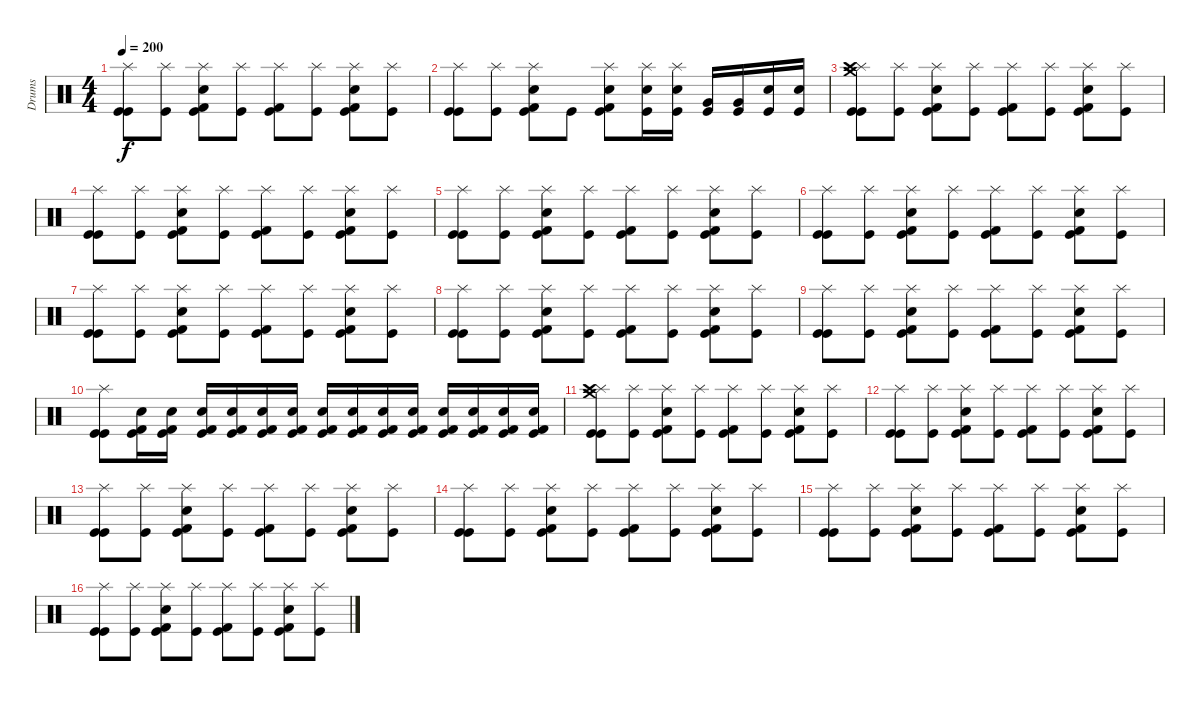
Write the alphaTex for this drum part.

\track ("Drums" "Drums") {instrument percussion}
\staff {score}
\articulation defaults
\ts (4 4)
\tempo 200
\clef neutral
\ks c
("Splash (hit)" "Kick (hit)" "Kick (hit)").8{dy f} ("Splash (hit)" "Kick (hit)").8 ("Splash (hit)" "Snare (hit) 2" "Kick (hit) 2" "Kick (hit)").8 ("Splash (hit)" "Kick (hit)").8 ("Splash (hit)" "Kick (hit) 2" "Kick (hit)").8 ("Splash (hit)" "Kick (hit)").8 ("Splash (hit)" "Snare (hit) 2" "Kick (hit) 2" "Kick (hit)").8 ("Splash (hit)" "Kick (hit)").8 |
("Splash (hit)" "Kick (hit)" "Kick (hit)").8 ("Splash (hit)" "Kick (hit)").8 ("Splash (hit)" "Snare (hit) 2" "Kick (hit) 2" "Kick (hit)").8 "Kick (hit)".8 ("Splash (hit)" "Snare (hit) 2" "Kick (hit) 2" "Kick (hit)").8 ("Splash (hit)" "Snare (hit) 2" "Kick (hit)").16 ("Splash (hit)" "Snare (hit) 2" "Kick (hit)").16 ("Very Low Tom (hit)" "Kick (hit)").16 ("Very Low Tom (hit)" "Kick (hit)").16 ("Electric Snare (hit)" "Kick (hit)").16 ("Electric Snare (hit)" "Kick (hit)").16 |
("Splash (hit)" "Crash high (hit)" "Crash medium (hit)" "Kick (hit)" "Kick (hit)").8 ("Splash (hit)" "Kick (hit)").8 ("Splash (hit)" "Snare (hit) 2" "Kick (hit) 2" "Kick (hit)").8 ("Splash (hit)" "Kick (hit)").8 ("Splash (hit)" "Kick (hit) 2" "Kick (hit)").8 ("Splash (hit)" "Kick (hit)").8 ("Splash (hit)" "Snare (hit) 2" "Kick (hit) 2" "Kick (hit)").8 ("Splash (hit)" "Kick (hit)").8 |
("Splash (hit)" "Kick (hit)" "Kick (hit)").8 ("Splash (hit)" "Kick (hit)").8 ("Splash (hit)" "Snare (hit) 2" "Kick (hit) 2" "Kick (hit)").8 ("Splash (hit)" "Kick (hit)").8 ("Splash (hit)" "Kick (hit) 2" "Kick (hit)").8 ("Splash (hit)" "Kick (hit)").8 ("Splash (hit)" "Snare (hit) 2" "Kick (hit) 2" "Kick (hit)").8 ("Splash (hit)" "Kick (hit)").8 |
("Splash (hit)" "Kick (hit)" "Kick (hit)").8 ("Splash (hit)" "Kick (hit)").8 ("Splash (hit)" "Snare (hit) 2" "Kick (hit) 2" "Kick (hit)").8 ("Splash (hit)" "Kick (hit)").8 ("Splash (hit)" "Kick (hit) 2" "Kick (hit)").8 ("Splash (hit)" "Kick (hit)").8 ("Splash (hit)" "Snare (hit) 2" "Kick (hit) 2" "Kick (hit)").8 ("Splash (hit)" "Kick (hit)").8 |
("Splash (hit)" "Kick (hit)" "Kick (hit)").8 ("Splash (hit)" "Kick (hit)").8 ("Splash (hit)" "Snare (hit) 2" "Kick (hit) 2" "Kick (hit)").8 ("Splash (hit)" "Kick (hit)").8 ("Splash (hit)" "Kick (hit) 2" "Kick (hit)").8 ("Splash (hit)" "Kick (hit)").8 ("Splash (hit)" "Snare (hit) 2" "Kick (hit) 2" "Kick (hit)").8 ("Splash (hit)" "Kick (hit)").8 |
("Splash (hit)" "Kick (hit)" "Kick (hit)").8 ("Splash (hit)" "Kick (hit)").8 ("Splash (hit)" "Snare (hit) 2" "Kick (hit) 2" "Kick (hit)").8 ("Splash (hit)" "Kick (hit)").8 ("Splash (hit)" "Kick (hit) 2" "Kick (hit)").8 ("Splash (hit)" "Kick (hit)").8 ("Splash (hit)" "Snare (hit) 2" "Kick (hit) 2" "Kick (hit)").8 ("Splash (hit)" "Kick (hit)").8 |
("Splash (hit)" "Kick (hit)" "Kick (hit)").8 ("Splash (hit)" "Kick (hit)").8 ("Splash (hit)" "Snare (hit) 2" "Kick (hit) 2" "Kick (hit)").8 ("Splash (hit)" "Kick (hit)").8 ("Splash (hit)" "Kick (hit) 2" "Kick (hit)").8 ("Splash (hit)" "Kick (hit)").8 ("Splash (hit)" "Snare (hit) 2" "Kick (hit) 2" "Kick (hit)").8 ("Splash (hit)" "Kick (hit)").8 |
("Splash (hit)" "Kick (hit)" "Kick (hit)").8 ("Splash (hit)" "Kick (hit)").8 ("Splash (hit)" "Snare (hit) 2" "Kick (hit) 2" "Kick (hit)").8 ("Splash (hit)" "Kick (hit)").8 ("Splash (hit)" "Kick (hit) 2" "Kick (hit)").8 ("Splash (hit)" "Kick (hit)").8 ("Splash (hit)" "Snare (hit) 2" "Kick (hit) 2" "Kick (hit)").8 ("Splash (hit)" "Kick (hit)").8 |
("Splash (hit)" "Kick (hit)" "Kick (hit)").8 ("Snare (hit) 2" "Kick (hit) 2" "Kick (hit)").16 ("Snare (hit) 2" "Kick (hit) 2" "Kick (hit)").16 ("Snare (hit) 2" "Kick (hit) 2" "Kick (hit)").16 ("Snare (hit) 2" "Kick (hit) 2" "Kick (hit)").16 ("Snare (hit) 2" "Kick (hit) 2" "Kick (hit)").16 ("Snare (hit) 2" "Kick (hit) 2" "Kick (hit)").16 ("Snare (hit) 2" "Kick (hit) 2" "Kick (hit)").16 ("Snare (hit) 2" "Kick (hit) 2" "Kick (hit)").16 ("Snare (hit) 2" "Kick (hit) 2" "Kick (hit)").16 ("Snare (hit) 2" "Kick (hit) 2" "Kick (hit)").16 ("Snare (hit) 2" "Kick (hit) 2" "Kick (hit)").16 ("Snare (hit) 2" "Kick (hit) 2" "Kick (hit)").16 ("Snare (hit) 2" "Kick (hit) 2" "Kick (hit)").16 ("Snare (hit) 2" "Kick (hit) 2" "Kick (hit)").16 |
("Splash (hit)" "Crash high (hit)" "Crash medium (hit)" "Kick (hit)" "Kick (hit)").8 ("Splash (hit)" "Kick (hit)").8 ("Splash (hit)" "Snare (hit) 2" "Kick (hit) 2" "Kick (hit)").8 ("Splash (hit)" "Kick (hit)").8 ("Splash (hit)" "Kick (hit) 2" "Kick (hit)").8 ("Splash (hit)" "Kick (hit)").8 ("Splash (hit)" "Snare (hit) 2" "Kick (hit) 2" "Kick (hit)").8 ("Splash (hit)" "Kick (hit)").8 |
("Splash (hit)" "Kick (hit)" "Kick (hit)").8 ("Splash (hit)" "Kick (hit)").8 ("Splash (hit)" "Snare (hit) 2" "Kick (hit) 2" "Kick (hit)").8 ("Splash (hit)" "Kick (hit)").8 ("Splash (hit)" "Kick (hit) 2" "Kick (hit)").8 ("Splash (hit)" "Kick (hit)").8 ("Splash (hit)" "Snare (hit) 2" "Kick (hit) 2" "Kick (hit)").8 ("Splash (hit)" "Kick (hit)").8 |
("Splash (hit)" "Kick (hit)" "Kick (hit)").8 ("Splash (hit)" "Kick (hit)").8 ("Splash (hit)" "Snare (hit) 2" "Kick (hit) 2" "Kick (hit)").8 ("Splash (hit)" "Kick (hit)").8 ("Splash (hit)" "Kick (hit) 2" "Kick (hit)").8 ("Splash (hit)" "Kick (hit)").8 ("Splash (hit)" "Snare (hit) 2" "Kick (hit) 2" "Kick (hit)").8 ("Splash (hit)" "Kick (hit)").8 |
("Splash (hit)" "Kick (hit)" "Kick (hit)").8 ("Splash (hit)" "Kick (hit)").8 ("Splash (hit)" "Snare (hit) 2" "Kick (hit) 2" "Kick (hit)").8 ("Splash (hit)" "Kick (hit)").8 ("Splash (hit)" "Kick (hit) 2" "Kick (hit)").8 ("Splash (hit)" "Kick (hit)").8 ("Splash (hit)" "Snare (hit) 2" "Kick (hit) 2" "Kick (hit)").8 ("Splash (hit)" "Kick (hit)").8 |
("Splash (hit)" "Kick (hit)" "Kick (hit)").8 ("Splash (hit)" "Kick (hit)").8 ("Splash (hit)" "Snare (hit) 2" "Kick (hit) 2" "Kick (hit)").8 ("Splash (hit)" "Kick (hit)").8 ("Splash (hit)" "Kick (hit) 2" "Kick (hit)").8 ("Splash (hit)" "Kick (hit)").8 ("Splash (hit)" "Snare (hit) 2" "Kick (hit) 2" "Kick (hit)").8 ("Splash (hit)" "Kick (hit)").8 |
("Splash (hit)" "Kick (hit)" "Kick (hit)").8 ("Splash (hit)" "Kick (hit)").8 ("Splash (hit)" "Snare (hit) 2" "Kick (hit) 2" "Kick (hit)").8 ("Splash (hit)" "Kick (hit)").8 ("Splash (hit)" "Kick (hit) 2" "Kick (hit)").8 ("Splash (hit)" "Kick (hit)").8 ("Splash (hit)" "Snare (hit) 2" "Kick (hit) 2" "Kick (hit)").8 ("Splash (hit)" "Kick (hit)").8
